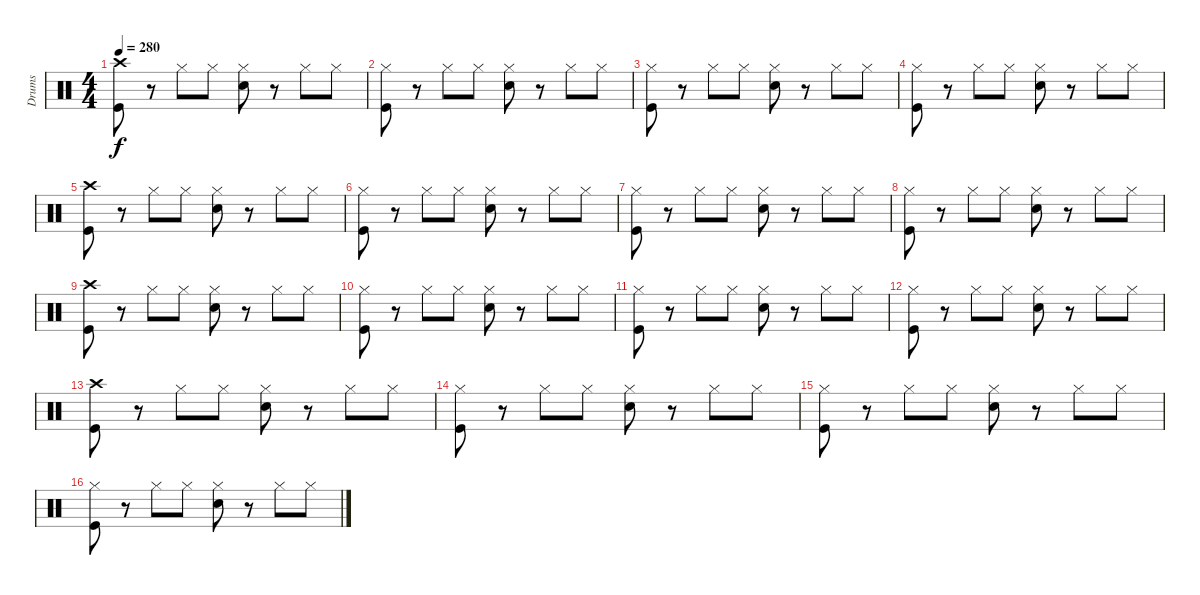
\track ("Drums" "Drums") {instrument percussion}
\staff {score}
\articulation defaults
\ts (4 4)
\tempo 280
\clef neutral
\ks c
("Crash high (hit)" "Kick (hit)").8{dy f} r.8 "Hi-Hat (closed)".8 "Hi-Hat (closed)".8 ("Hi-Hat (closed)" "Electric Snare (hit)").8 r.8 "Hi-Hat (closed)".8 "Hi-Hat (closed)".8 |
("Hi-Hat (closed)" "Kick (hit)").8 r.8 "Hi-Hat (closed)".8 "Hi-Hat (closed)".8 ("Hi-Hat (closed)" "Electric Snare (hit)").8 r.8 "Hi-Hat (closed)".8 "Hi-Hat (closed)".8 |
("Hi-Hat (closed)" "Kick (hit)").8 r.8 "Hi-Hat (closed)".8 "Hi-Hat (closed)".8 ("Hi-Hat (closed)" "Electric Snare (hit)").8 r.8 "Hi-Hat (closed)".8 "Hi-Hat (closed)".8 |
("Hi-Hat (closed)" "Kick (hit)").8 r.8 "Hi-Hat (closed)".8 "Hi-Hat (closed)".8 ("Hi-Hat (closed)" "Electric Snare (hit)").8 r.8 "Hi-Hat (closed)".8 "Hi-Hat (closed)".8 |
("Crash high (hit)" "Kick (hit)").8 r.8 "Hi-Hat (closed)".8 "Hi-Hat (closed)".8 ("Hi-Hat (closed)" "Electric Snare (hit)").8 r.8 "Hi-Hat (closed)".8 "Hi-Hat (closed)".8 |
("Hi-Hat (closed)" "Kick (hit)").8 r.8 "Hi-Hat (closed)".8 "Hi-Hat (closed)".8 ("Hi-Hat (closed)" "Electric Snare (hit)").8 r.8 "Hi-Hat (closed)".8 "Hi-Hat (closed)".8 |
("Hi-Hat (closed)" "Kick (hit)").8 r.8 "Hi-Hat (closed)".8 "Hi-Hat (closed)".8 ("Hi-Hat (closed)" "Electric Snare (hit)").8 r.8 "Hi-Hat (closed)".8 "Hi-Hat (closed)".8 |
("Hi-Hat (closed)" "Kick (hit)").8 r.8 "Hi-Hat (closed)".8 "Hi-Hat (closed)".8 ("Hi-Hat (closed)" "Electric Snare (hit)").8 r.8 "Hi-Hat (closed)".8 "Hi-Hat (closed)".8 |
("Crash high (hit)" "Kick (hit)").8 r.8 "Hi-Hat (closed)".8 "Hi-Hat (closed)".8 ("Hi-Hat (closed)" "Electric Snare (hit)").8 r.8 "Hi-Hat (closed)".8 "Hi-Hat (closed)".8 |
("Hi-Hat (closed)" "Kick (hit)").8 r.8 "Hi-Hat (closed)".8 "Hi-Hat (closed)".8 ("Hi-Hat (closed)" "Electric Snare (hit)").8 r.8 "Hi-Hat (closed)".8 "Hi-Hat (closed)".8 |
("Hi-Hat (closed)" "Kick (hit)").8 r.8 "Hi-Hat (closed)".8 "Hi-Hat (closed)".8 ("Hi-Hat (closed)" "Electric Snare (hit)").8 r.8 "Hi-Hat (closed)".8 "Hi-Hat (closed)".8 |
("Hi-Hat (closed)" "Kick (hit)").8 r.8 "Hi-Hat (closed)".8 "Hi-Hat (closed)".8 ("Hi-Hat (closed)" "Electric Snare (hit)").8 r.8 "Hi-Hat (closed)".8 "Hi-Hat (closed)".8 |
("Crash high (hit)" "Kick (hit)").8 r.8 "Hi-Hat (closed)".8 "Hi-Hat (closed)".8 ("Hi-Hat (closed)" "Electric Snare (hit)").8 r.8 "Hi-Hat (closed)".8 "Hi-Hat (closed)".8 |
("Hi-Hat (closed)" "Kick (hit)").8 r.8 "Hi-Hat (closed)".8 "Hi-Hat (closed)".8 ("Hi-Hat (closed)" "Electric Snare (hit)").8 r.8 "Hi-Hat (closed)".8 "Hi-Hat (closed)".8 |
("Hi-Hat (closed)" "Kick (hit)").8 r.8 "Hi-Hat (closed)".8 "Hi-Hat (closed)".8 ("Hi-Hat (closed)" "Electric Snare (hit)").8 r.8 "Hi-Hat (closed)".8 "Hi-Hat (closed)".8 |
("Hi-Hat (closed)" "Kick (hit)").8 r.8 "Hi-Hat (closed)".8 "Hi-Hat (closed)".8 ("Hi-Hat (closed)" "Electric Snare (hit)").8 r.8 "Hi-Hat (closed)".8 "Hi-Hat (closed)".8
